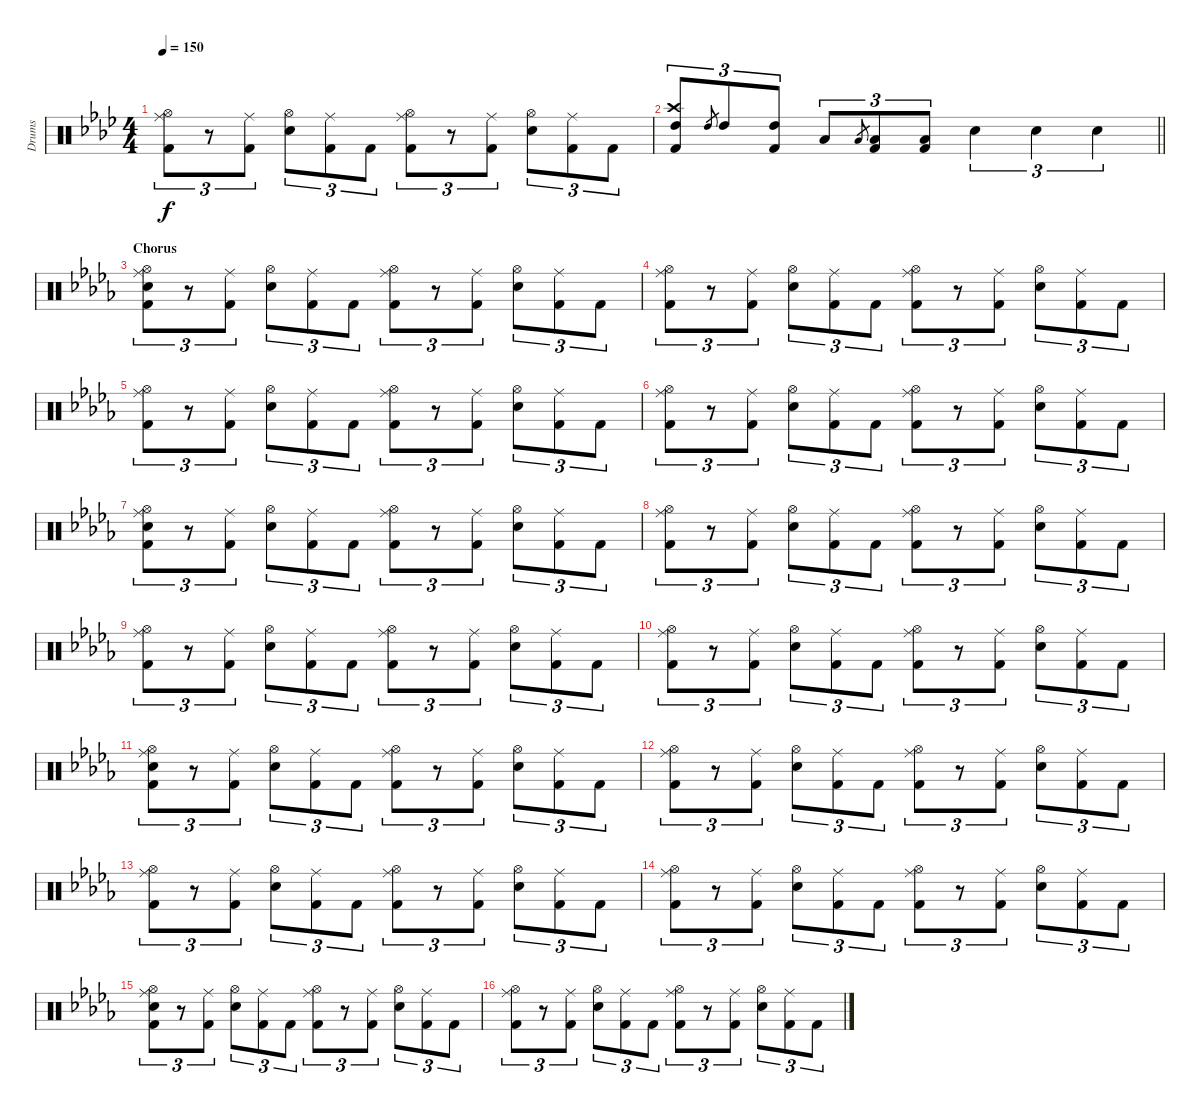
\track ("Drums" "Drums") {instrument percussion}
\staff {score}
\articulation defaults
\ts (4 4)
\tempo 150
\clef neutral
\ks fminor
("Hi-Hat (open)" "Ride (middle)" "Kick (hit) 2").8{tu (3 2) dy f} r.8{tu (3 2)} ("Ride (middle)" "Kick (hit) 2").8{tu (3 2)} ("Hi-Hat (open)" "Snare (hit) 2").8{tu (3 2)} ("Ride (middle)" "Kick (hit) 2").8{tu (3 2)} "Kick (hit) 2".8{tu (3 2)} ("Hi-Hat (open)" "Ride (middle)" "Kick (hit) 2").8{tu (3 2)} r.8{tu (3 2)} ("Ride (middle)" "Kick (hit) 2").8{tu (3 2)} ("Hi-Hat (open)" "Snare (hit) 2").8{tu (3 2)} ("Ride (middle)" "Kick (hit) 2").8{tu (3 2)} "Kick (hit) 2".8{tu (3 2)} |
\barLineRight lightlight
("Crash high (hit)" "High Tom (hit)" "Kick (hit) 2").8{tu (3 2)} "High Tom (hit)".8{gr} "High Tom (hit)".8{tu (3 2)} ("High Tom (hit)" "Kick (hit) 2").8{tu (3 2)} "Low Tom (hit)".8{tu (3 2)} "Low Tom (hit)".8{gr} ("Low Tom (hit)" "Kick (hit) 2").8{tu (3 2)} ("Low Tom (hit)" "Kick (hit) 2").8{tu (3 2)} "Snare (hit) 2".4{tu (3 2)} "Snare (hit) 2".4{tu (3 2)} "Snare (hit) 2".4{tu (3 2)} |
\section ("" "Chorus")
\ks bbminor
("Snare (hit)" "Hi-Hat (open)" "Ride (middle)" "Kick (hit) 2").8{tu (3 2)} r.8{tu (3 2)} ("Ride (middle)" "Kick (hit) 2").8{tu (3 2)} ("Hi-Hat (open)" "Snare (hit) 2").8{tu (3 2)} ("Ride (middle)" "Kick (hit) 2").8{tu (3 2)} "Kick (hit) 2".8{tu (3 2)} ("Hi-Hat (open)" "Ride (middle)" "Kick (hit) 2").8{tu (3 2)} r.8{tu (3 2)} ("Ride (middle)" "Kick (hit) 2").8{tu (3 2)} ("Hi-Hat (open)" "Snare (hit) 2").8{tu (3 2)} ("Ride (middle)" "Kick (hit) 2").8{tu (3 2)} "Kick (hit) 2".8{tu (3 2)} |
("Hi-Hat (open)" "Ride (middle)" "Kick (hit) 2").8{tu (3 2)} r.8{tu (3 2)} ("Ride (middle)" "Kick (hit) 2").8{tu (3 2)} ("Hi-Hat (open)" "Snare (hit) 2").8{tu (3 2)} ("Ride (middle)" "Kick (hit) 2").8{tu (3 2)} "Kick (hit) 2".8{tu (3 2)} ("Hi-Hat (open)" "Ride (middle)" "Kick (hit) 2").8{tu (3 2)} r.8{tu (3 2)} ("Ride (middle)" "Kick (hit) 2").8{tu (3 2)} ("Hi-Hat (open)" "Snare (hit) 2").8{tu (3 2)} ("Ride (middle)" "Kick (hit) 2").8{tu (3 2)} "Kick (hit) 2".8{tu (3 2)} |
("Hi-Hat (open)" "Ride (middle)" "Kick (hit) 2").8{tu (3 2)} r.8{tu (3 2)} ("Ride (middle)" "Kick (hit) 2").8{tu (3 2)} ("Hi-Hat (open)" "Snare (hit) 2").8{tu (3 2)} ("Ride (middle)" "Kick (hit) 2").8{tu (3 2)} "Kick (hit) 2".8{tu (3 2)} ("Hi-Hat (open)" "Ride (middle)" "Kick (hit) 2").8{tu (3 2)} r.8{tu (3 2)} ("Ride (middle)" "Kick (hit) 2").8{tu (3 2)} ("Hi-Hat (open)" "Snare (hit) 2").8{tu (3 2)} ("Ride (middle)" "Kick (hit) 2").8{tu (3 2)} "Kick (hit) 2".8{tu (3 2)} |
("Hi-Hat (open)" "Ride (middle)" "Kick (hit) 2").8{tu (3 2)} r.8{tu (3 2)} ("Ride (middle)" "Kick (hit) 2").8{tu (3 2)} ("Hi-Hat (open)" "Snare (hit) 2").8{tu (3 2)} ("Ride (middle)" "Kick (hit) 2").8{tu (3 2)} "Kick (hit) 2".8{tu (3 2)} ("Hi-Hat (open)" "Ride (middle)" "Kick (hit) 2").8{tu (3 2)} r.8{tu (3 2)} ("Ride (middle)" "Kick (hit) 2").8{tu (3 2)} ("Hi-Hat (open)" "Snare (hit) 2").8{tu (3 2)} ("Ride (middle)" "Kick (hit) 2").8{tu (3 2)} "Kick (hit) 2".8{tu (3 2)} |
("Snare (hit)" "Hi-Hat (open)" "Ride (middle)" "Kick (hit) 2").8{tu (3 2)} r.8{tu (3 2)} ("Ride (middle)" "Kick (hit) 2").8{tu (3 2)} ("Hi-Hat (open)" "Snare (hit) 2").8{tu (3 2)} ("Ride (middle)" "Kick (hit) 2").8{tu (3 2)} "Kick (hit) 2".8{tu (3 2)} ("Hi-Hat (open)" "Ride (middle)" "Kick (hit) 2").8{tu (3 2)} r.8{tu (3 2)} ("Ride (middle)" "Kick (hit) 2").8{tu (3 2)} ("Hi-Hat (open)" "Snare (hit) 2").8{tu (3 2)} ("Ride (middle)" "Kick (hit) 2").8{tu (3 2)} "Kick (hit) 2".8{tu (3 2)} |
("Hi-Hat (open)" "Ride (middle)" "Kick (hit) 2").8{tu (3 2)} r.8{tu (3 2)} ("Ride (middle)" "Kick (hit) 2").8{tu (3 2)} ("Hi-Hat (open)" "Snare (hit) 2").8{tu (3 2)} ("Ride (middle)" "Kick (hit) 2").8{tu (3 2)} "Kick (hit) 2".8{tu (3 2)} ("Hi-Hat (open)" "Ride (middle)" "Kick (hit) 2").8{tu (3 2)} r.8{tu (3 2)} ("Ride (middle)" "Kick (hit) 2").8{tu (3 2)} ("Hi-Hat (open)" "Snare (hit) 2").8{tu (3 2)} ("Ride (middle)" "Kick (hit) 2").8{tu (3 2)} "Kick (hit) 2".8{tu (3 2)} |
("Hi-Hat (open)" "Ride (middle)" "Kick (hit) 2").8{tu (3 2)} r.8{tu (3 2)} ("Ride (middle)" "Kick (hit) 2").8{tu (3 2)} ("Hi-Hat (open)" "Snare (hit) 2").8{tu (3 2)} ("Ride (middle)" "Kick (hit) 2").8{tu (3 2)} "Kick (hit) 2".8{tu (3 2)} ("Hi-Hat (open)" "Ride (middle)" "Kick (hit) 2").8{tu (3 2)} r.8{tu (3 2)} ("Ride (middle)" "Kick (hit) 2").8{tu (3 2)} ("Hi-Hat (open)" "Snare (hit) 2").8{tu (3 2)} ("Ride (middle)" "Kick (hit) 2").8{tu (3 2)} "Kick (hit) 2".8{tu (3 2)} |
("Hi-Hat (open)" "Ride (middle)" "Kick (hit) 2").8{tu (3 2)} r.8{tu (3 2)} ("Ride (middle)" "Kick (hit) 2").8{tu (3 2)} ("Hi-Hat (open)" "Snare (hit) 2").8{tu (3 2)} ("Ride (middle)" "Kick (hit) 2").8{tu (3 2)} "Kick (hit) 2".8{tu (3 2)} ("Hi-Hat (open)" "Ride (middle)" "Kick (hit) 2").8{tu (3 2)} r.8{tu (3 2)} ("Ride (middle)" "Kick (hit) 2").8{tu (3 2)} ("Hi-Hat (open)" "Snare (hit) 2").8{tu (3 2)} ("Ride (middle)" "Kick (hit) 2").8{tu (3 2)} "Kick (hit) 2".8{tu (3 2)} |
("Snare (hit)" "Hi-Hat (open)" "Ride (middle)" "Kick (hit) 2").8{tu (3 2)} r.8{tu (3 2)} ("Ride (middle)" "Kick (hit) 2").8{tu (3 2)} ("Hi-Hat (open)" "Snare (hit) 2").8{tu (3 2)} ("Ride (middle)" "Kick (hit) 2").8{tu (3 2)} "Kick (hit) 2".8{tu (3 2)} ("Hi-Hat (open)" "Ride (middle)" "Kick (hit) 2").8{tu (3 2)} r.8{tu (3 2)} ("Ride (middle)" "Kick (hit) 2").8{tu (3 2)} ("Hi-Hat (open)" "Snare (hit) 2").8{tu (3 2)} ("Ride (middle)" "Kick (hit) 2").8{tu (3 2)} "Kick (hit) 2".8{tu (3 2)} |
("Hi-Hat (open)" "Ride (middle)" "Kick (hit) 2").8{tu (3 2)} r.8{tu (3 2)} ("Ride (middle)" "Kick (hit) 2").8{tu (3 2)} ("Hi-Hat (open)" "Snare (hit) 2").8{tu (3 2)} ("Ride (middle)" "Kick (hit) 2").8{tu (3 2)} "Kick (hit) 2".8{tu (3 2)} ("Hi-Hat (open)" "Ride (middle)" "Kick (hit) 2").8{tu (3 2)} r.8{tu (3 2)} ("Ride (middle)" "Kick (hit) 2").8{tu (3 2)} ("Hi-Hat (open)" "Snare (hit) 2").8{tu (3 2)} ("Ride (middle)" "Kick (hit) 2").8{tu (3 2)} "Kick (hit) 2".8{tu (3 2)} |
("Hi-Hat (open)" "Ride (middle)" "Kick (hit) 2").8{tu (3 2)} r.8{tu (3 2)} ("Ride (middle)" "Kick (hit) 2").8{tu (3 2)} ("Hi-Hat (open)" "Snare (hit) 2").8{tu (3 2)} ("Ride (middle)" "Kick (hit) 2").8{tu (3 2)} "Kick (hit) 2".8{tu (3 2)} ("Hi-Hat (open)" "Ride (middle)" "Kick (hit) 2").8{tu (3 2)} r.8{tu (3 2)} ("Ride (middle)" "Kick (hit) 2").8{tu (3 2)} ("Hi-Hat (open)" "Snare (hit) 2").8{tu (3 2)} ("Ride (middle)" "Kick (hit) 2").8{tu (3 2)} "Kick (hit) 2".8{tu (3 2)} |
("Hi-Hat (open)" "Ride (middle)" "Kick (hit) 2").8{tu (3 2)} r.8{tu (3 2)} ("Ride (middle)" "Kick (hit) 2").8{tu (3 2)} ("Hi-Hat (open)" "Snare (hit) 2").8{tu (3 2)} ("Ride (middle)" "Kick (hit) 2").8{tu (3 2)} "Kick (hit) 2".8{tu (3 2)} ("Hi-Hat (open)" "Ride (middle)" "Kick (hit) 2").8{tu (3 2)} r.8{tu (3 2)} ("Ride (middle)" "Kick (hit) 2").8{tu (3 2)} ("Hi-Hat (open)" "Snare (hit) 2").8{tu (3 2)} ("Ride (middle)" "Kick (hit) 2").8{tu (3 2)} "Kick (hit) 2".8{tu (3 2)} |
("Snare (hit)" "Hi-Hat (open)" "Ride (middle)" "Kick (hit) 2").8{tu (3 2)} r.8{tu (3 2)} ("Ride (middle)" "Kick (hit) 2").8{tu (3 2)} ("Hi-Hat (open)" "Snare (hit) 2").8{tu (3 2)} ("Ride (middle)" "Kick (hit) 2").8{tu (3 2)} "Kick (hit) 2".8{tu (3 2)} ("Hi-Hat (open)" "Ride (middle)" "Kick (hit) 2").8{tu (3 2)} r.8{tu (3 2)} ("Ride (middle)" "Kick (hit) 2").8{tu (3 2)} ("Hi-Hat (open)" "Snare (hit) 2").8{tu (3 2)} ("Ride (middle)" "Kick (hit) 2").8{tu (3 2)} "Kick (hit) 2".8{tu (3 2)} |
("Hi-Hat (open)" "Ride (middle)" "Kick (hit) 2").8{tu (3 2)} r.8{tu (3 2)} ("Ride (middle)" "Kick (hit) 2").8{tu (3 2)} ("Hi-Hat (open)" "Snare (hit) 2").8{tu (3 2)} ("Ride (middle)" "Kick (hit) 2").8{tu (3 2)} "Kick (hit) 2".8{tu (3 2)} ("Hi-Hat (open)" "Ride (middle)" "Kick (hit) 2").8{tu (3 2)} r.8{tu (3 2)} ("Ride (middle)" "Kick (hit) 2").8{tu (3 2)} ("Hi-Hat (open)" "Snare (hit) 2").8{tu (3 2)} ("Ride (middle)" "Kick (hit) 2").8{tu (3 2)} "Kick (hit) 2".8{tu (3 2)}
